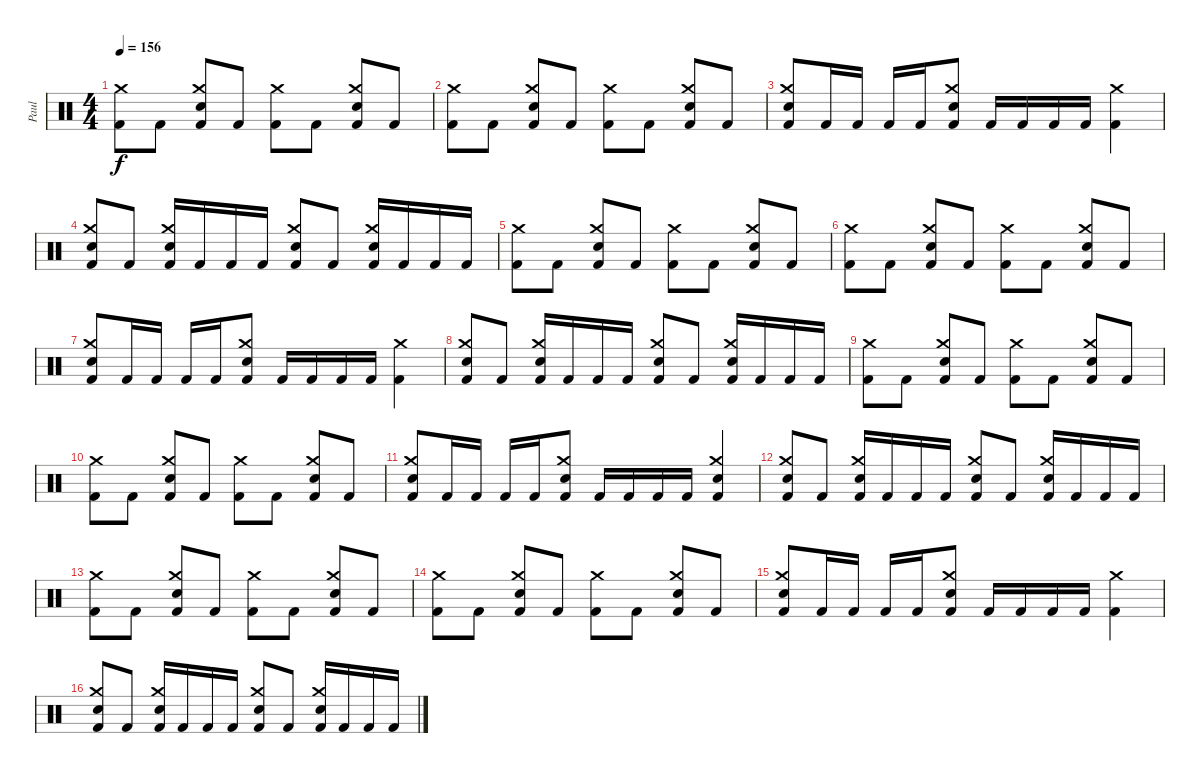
\track ("Paul" "Paul") {instrument percussion}
\staff {score}
\articulation defaults
\ts (4 4)
\tempo 156
\clef neutral
\ks c
("Kick (hit) 2" "Crash medium (hit)").8{dy f} "Kick (hit) 2".8 ("Kick (hit) 2" "Snare (hit) 2" "Crash medium (hit)").8 "Kick (hit) 2".8 ("Kick (hit) 2" "Crash medium (hit)").8 "Kick (hit) 2".8 ("Kick (hit) 2" "Snare (hit) 2" "Crash medium (hit)").8 "Kick (hit) 2".8 |
("Kick (hit) 2" "Crash medium (hit)").8 "Kick (hit) 2".8 ("Kick (hit) 2" "Snare (hit) 2" "Crash medium (hit)").8 "Kick (hit) 2".8 ("Kick (hit) 2" "Crash medium (hit)").8 "Kick (hit) 2".8 ("Kick (hit) 2" "Snare (hit) 2" "Crash medium (hit)").8 "Kick (hit) 2".8 |
("Kick (hit) 2" "Snare (hit) 2" "Crash medium (hit)").8 "Kick (hit) 2".16 "Kick (hit) 2".16 "Kick (hit) 2".16 "Kick (hit) 2".16 ("Kick (hit) 2" "Snare (hit) 2" "Crash medium (hit)").8 "Kick (hit) 2".16 "Kick (hit) 2".16 "Kick (hit) 2".16 "Kick (hit) 2".16 ("Kick (hit) 2" "Crash medium (hit)").4 |
("Kick (hit) 2" "Snare (hit) 2" "Crash medium (hit)").8 "Kick (hit) 2".8 ("Kick (hit) 2" "Snare (hit) 2" "Crash medium (hit)").16 "Kick (hit) 2".16 "Kick (hit) 2".16 "Kick (hit) 2".16 ("Kick (hit) 2" "Snare (hit) 2" "Crash medium (hit)").8 "Kick (hit) 2".8 ("Kick (hit) 2" "Snare (hit) 2" "Crash medium (hit)").16 "Kick (hit) 2".16 "Kick (hit) 2".16 "Kick (hit) 2".16 |
("Kick (hit) 2" "Crash medium (hit)").8 "Kick (hit) 2".8 ("Kick (hit) 2" "Snare (hit) 2" "Crash medium (hit)").8 "Kick (hit) 2".8 ("Kick (hit) 2" "Crash medium (hit)").8 "Kick (hit) 2".8 ("Kick (hit) 2" "Snare (hit) 2" "Crash medium (hit)").8 "Kick (hit) 2".8 |
("Kick (hit) 2" "Crash medium (hit)").8 "Kick (hit) 2".8 ("Kick (hit) 2" "Snare (hit) 2" "Crash medium (hit)").8 "Kick (hit) 2".8 ("Kick (hit) 2" "Crash medium (hit)").8 "Kick (hit) 2".8 ("Kick (hit) 2" "Snare (hit) 2" "Crash medium (hit)").8 "Kick (hit) 2".8 |
("Kick (hit) 2" "Snare (hit) 2" "Crash medium (hit)").8 "Kick (hit) 2".16 "Kick (hit) 2".16 "Kick (hit) 2".16 "Kick (hit) 2".16 ("Kick (hit) 2" "Snare (hit) 2" "Crash medium (hit)").8 "Kick (hit) 2".16 "Kick (hit) 2".16 "Kick (hit) 2".16 "Kick (hit) 2".16 ("Kick (hit) 2" "Crash medium (hit)").4 |
("Kick (hit) 2" "Snare (hit) 2" "Crash medium (hit)").8 "Kick (hit) 2".8 ("Kick (hit) 2" "Snare (hit) 2" "Crash medium (hit)").16 "Kick (hit) 2".16 "Kick (hit) 2".16 "Kick (hit) 2".16 ("Kick (hit) 2" "Snare (hit) 2" "Crash medium (hit)").8 "Kick (hit) 2".8 ("Kick (hit) 2" "Snare (hit) 2" "Crash medium (hit)").16 "Kick (hit) 2".16 "Kick (hit) 2".16 "Kick (hit) 2".16 |
("Kick (hit) 2" "Crash medium (hit)").8 "Kick (hit) 2".8 ("Kick (hit) 2" "Snare (hit) 2" "Crash medium (hit)").8 "Kick (hit) 2".8 ("Kick (hit) 2" "Crash medium (hit)").8 "Kick (hit) 2".8 ("Kick (hit) 2" "Snare (hit) 2" "Crash medium (hit)").8 "Kick (hit) 2".8 |
("Kick (hit) 2" "Crash medium (hit)").8 "Kick (hit) 2".8 ("Kick (hit) 2" "Snare (hit) 2" "Crash medium (hit)").8 "Kick (hit) 2".8 ("Kick (hit) 2" "Crash medium (hit)").8 "Kick (hit) 2".8 ("Kick (hit) 2" "Snare (hit) 2" "Crash medium (hit)").8 "Kick (hit) 2".8 |
("Kick (hit) 2" "Snare (hit) 2" "Crash medium (hit)").8 "Kick (hit) 2".16 "Kick (hit) 2".16 "Kick (hit) 2".16 "Kick (hit) 2".16 ("Kick (hit) 2" "Snare (hit) 2" "Crash medium (hit)").8 "Kick (hit) 2".16 "Kick (hit) 2".16 "Kick (hit) 2".16 "Kick (hit) 2".16 ("Kick (hit) 2" "Snare (hit) 2" "Crash medium (hit)").4 |
("Kick (hit) 2" "Snare (hit) 2" "Crash medium (hit)").8 "Kick (hit) 2".8 ("Kick (hit) 2" "Snare (hit) 2" "Crash medium (hit)").16 "Kick (hit) 2".16 "Kick (hit) 2".16 "Kick (hit) 2".16 ("Kick (hit) 2" "Snare (hit) 2" "Crash medium (hit)").8 "Kick (hit) 2".8 ("Kick (hit) 2" "Snare (hit) 2" "Crash medium (hit)").16 "Kick (hit) 2".16 "Kick (hit) 2".16 "Kick (hit) 2".16 |
("Kick (hit) 2" "Crash medium (hit)").8 "Kick (hit) 2".8 ("Kick (hit) 2" "Snare (hit) 2" "Crash medium (hit)").8 "Kick (hit) 2".8 ("Kick (hit) 2" "Crash medium (hit)").8 "Kick (hit) 2".8 ("Kick (hit) 2" "Snare (hit) 2" "Crash medium (hit)").8 "Kick (hit) 2".8 |
("Kick (hit) 2" "Crash medium (hit)").8 "Kick (hit) 2".8 ("Kick (hit) 2" "Snare (hit) 2" "Crash medium (hit)").8 "Kick (hit) 2".8 ("Kick (hit) 2" "Crash medium (hit)").8 "Kick (hit) 2".8 ("Kick (hit) 2" "Snare (hit) 2" "Crash medium (hit)").8 "Kick (hit) 2".8 |
("Kick (hit) 2" "Snare (hit) 2" "Crash medium (hit)").8 "Kick (hit) 2".16 "Kick (hit) 2".16 "Kick (hit) 2".16 "Kick (hit) 2".16 ("Kick (hit) 2" "Snare (hit) 2" "Crash medium (hit)").8 "Kick (hit) 2".16 "Kick (hit) 2".16 "Kick (hit) 2".16 "Kick (hit) 2".16 ("Kick (hit) 2" "Crash medium (hit)").4 |
("Kick (hit) 2" "Snare (hit) 2" "Crash medium (hit)").8 "Kick (hit) 2".8 ("Kick (hit) 2" "Snare (hit) 2" "Crash medium (hit)").16 "Kick (hit) 2".16 "Kick (hit) 2".16 "Kick (hit) 2".16 ("Kick (hit) 2" "Snare (hit) 2" "Crash medium (hit)").8 "Kick (hit) 2".8 ("Kick (hit) 2" "Snare (hit) 2" "Crash medium (hit)").16 "Kick (hit) 2".16 "Kick (hit) 2".16 "Kick (hit) 2".16
